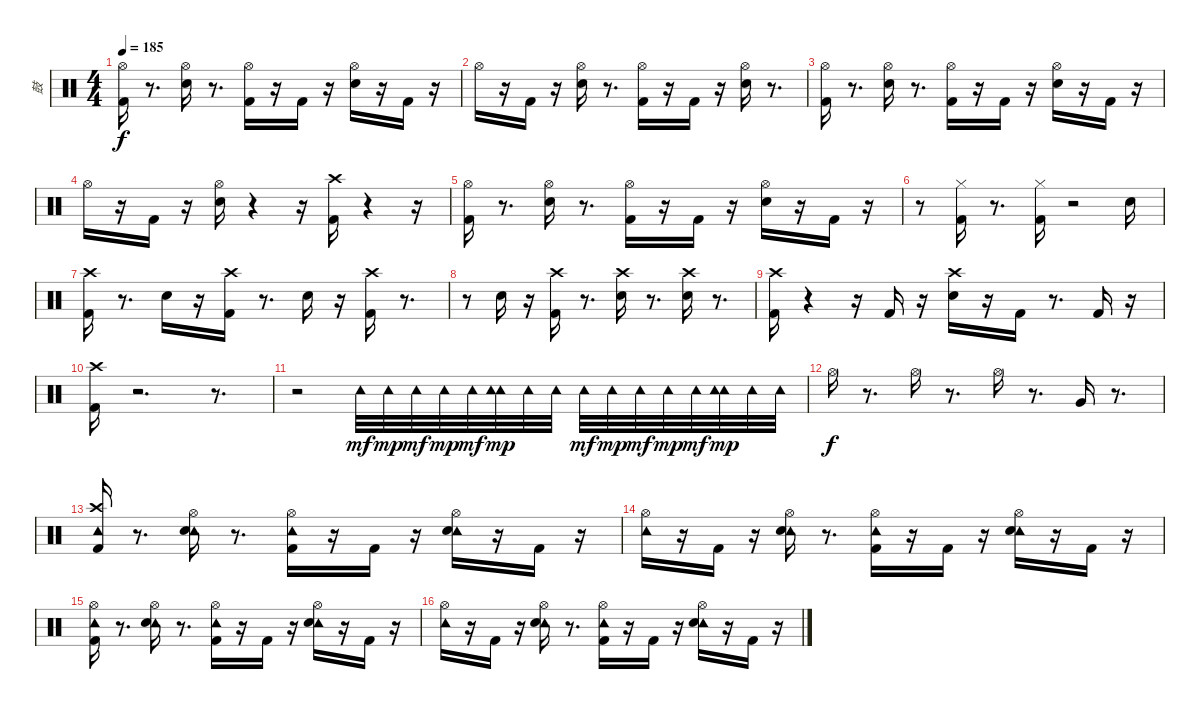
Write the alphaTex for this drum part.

\track ("鼓" "鼓") {instrument percussion}
\staff {score}
\articulation defaults
\ts (4 4)
\tempo 185
\clef neutral
\ks c
("Hi-Hat (open)" "Kick (hit) 2").16{dy f} r.8{d} ("Hi-Hat (open)" "Snare (hit) 2").16 r.8{d} ("Hi-Hat (open)" "Kick (hit) 2").16 r.16 "Kick (hit) 2".16 r.16 ("Hi-Hat (open)" "Snare (hit) 2").16 r.16 "Kick (hit) 2".16 r.16 |
"Hi-Hat (open)".16 r.16 "Kick (hit) 2".16 r.16 ("Hi-Hat (open)" "Snare (hit) 2").16 r.8{d} ("Kick (hit) 2" "Hi-Hat (open)").16 r.16 "Kick (hit) 2".16 r.16 ("Hi-Hat (open)" "Snare (hit) 2").16 r.8{d} |
("Hi-Hat (open)" "Kick (hit) 2").16 r.8{d} ("Hi-Hat (open)" "Snare (hit) 2").16 r.8{d} ("Hi-Hat (open)" "Kick (hit) 2").16 r.16 "Kick (hit) 2".16 r.16 ("Hi-Hat (open)" "Snare (hit) 2").16 r.16 "Kick (hit) 2".16 r.16 |
"Hi-Hat (open)".16 r.16 "Kick (hit) 2".16 r.16 ("Hi-Hat (open)" "Snare (hit) 2").16 r.4 r.16 ("Crash high (hit)" "Kick (hit) 2").16 r.4 r.16 |
("Hi-Hat (open)" "Kick (hit) 2").16 r.8{d} ("Hi-Hat (open)" "Snare (hit) 2").16 r.8{d} ("Hi-Hat (open)" "Kick (hit) 2").16 r.16 "Kick (hit) 2".16 r.16 ("Hi-Hat (open)" "Snare (hit) 2").16 r.16 "Kick (hit) 2".16 r.16 |
r.8 ("Kick (hit) 2" "Hi-Hat (closed)").16 r.8{d} ("Kick (hit) 2" "Hi-Hat (closed)").16 r.2 "Snare (hit) 2".16 |
("Crash high (hit)" "Kick (hit) 2").16 r.8{d} "Snare (hit) 2".16 r.16 ("Kick (hit) 2" "Crash high (hit)").16 r.8{d} "Snare (hit) 2".16 r.16 ("Kick (hit) 2" "Crash high (hit)").16 r.8{d} |
r.8 "Snare (hit) 2".16 r.16 ("Crash high (hit)" "Kick (hit) 2").16 r.8{d} ("Snare (hit) 2" "Crash high (hit)").16 r.8{d} ("Snare (hit) 2" "Crash high (hit)").16 r.8{d} |
("Crash high (hit)" "Kick (hit) 2").16 r.4 r.16 "Kick (hit) 2".16 r.16 ("Crash high (hit)" "Snare (hit) 2").16 r.16 "Kick (hit) 2".16 r.8{d} "Kick (hit) 2".16 r.16 |
("Kick (hit) 2" "Crash high (hit)").16 r.2{d} r.8{d} |
r.2 "Tambourine (hit)".32{dy mf} "Tambourine (hit)".32{dy mp} "Tambourine (hit)".32{dy mf} "Tambourine (hit)".32{dy mp} "Tambourine (hit)".32{dy mf} ("Tambourine (hit)" "Tambourine (hit)").32{dy mp} "Tambourine (hit)".32 "Tambourine (hit)".32 "Tambourine (hit)".32{dy mf} "Tambourine (hit)".32{dy mp} "Tambourine (hit)".32{dy mf} "Tambourine (hit)".32{dy mp} "Tambourine (hit)".32{dy mf} ("Tambourine (hit)" "Tambourine (hit)").32{dy mp} "Tambourine (hit)".32 "Tambourine (hit)".32 |
"Hi-Hat (open)".16{dy f} r.8{d} "Hi-Hat (open)".16 r.8{d} "Hi-Hat (open)".16 r.8{d} "Very Low Tom (hit)".16 r.8{d} |
("Tambourine (hit)" "Kick (hit) 2" "Crash high (hit)").16 r.8{d} ("Tambourine (hit)" "Snare (hit) 2" "Hi-Hat (open)").16 r.8{d} ("Tambourine (hit)" "Kick (hit) 2" "Hi-Hat (open)").16 r.16 "Kick (hit) 2".16 r.16 ("Tambourine (hit)" "Snare (hit) 2" "Hi-Hat (open)").16 r.16 "Kick (hit) 2".16 r.16 |
("Tambourine (hit)" "Hi-Hat (open)").16 r.16 "Kick (hit) 2".16 r.16 ("Tambourine (hit)" "Hi-Hat (open)" "Snare (hit) 2").16 r.8{d} ("Tambourine (hit)" "Hi-Hat (open)" "Kick (hit) 2").16 r.16 "Kick (hit) 2".16 r.16 ("Tambourine (hit)" "Hi-Hat (open)" "Snare (hit) 2").16 r.16 "Kick (hit) 2".16 r.16 |
("Tambourine (hit)" "Kick (hit) 2" "Hi-Hat (open)").16 r.8{d} ("Tambourine (hit)" "Snare (hit) 2" "Hi-Hat (open)").16 r.8{d} ("Tambourine (hit)" "Kick (hit) 2" "Hi-Hat (open)").16 r.16 "Kick (hit) 2".16 r.16 ("Tambourine (hit)" "Snare (hit) 2" "Hi-Hat (open)").16 r.16 "Kick (hit) 2".16 r.16 |
("Tambourine (hit)" "Hi-Hat (open)").16 r.16 "Kick (hit) 2".16 r.16 ("Tambourine (hit)" "Hi-Hat (open)" "Snare (hit) 2").16 r.8{d} ("Tambourine (hit)" "Hi-Hat (open)" "Kick (hit) 2").16 r.16 "Kick (hit) 2".16 r.16 ("Tambourine (hit)" "Hi-Hat (open)" "Snare (hit) 2").16 r.16 "Kick (hit) 2".16 r.16
